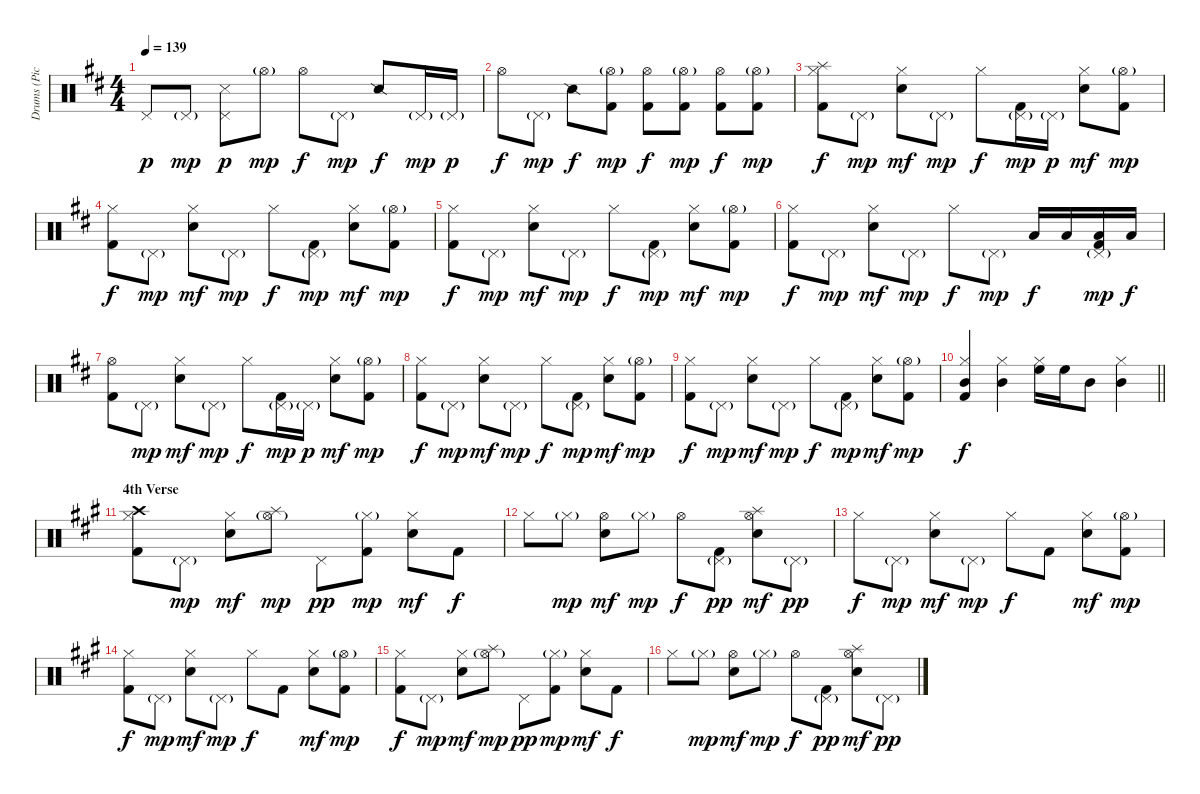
\track ("Drums (Pick)" "Drums (Pic") {instrument percussion}
\staff {score}
\articulation defaults
\ts (4 4)
\tempo 139
\clef neutral
\ks d "Pedal Hi-Hat (hit)".8{dy p} "Pedal Hi-Hat (hit)"{g}.8{dy mp}
("Snare (side stick) 3" "Pedal Hi-Hat (hit)").8{dy p} "Hi-Hat (open)"{g}.8{dy mp} "Hi-Hat (open)".8{dy f} "Pedal Hi-Hat (hit)"{g}.8{dy mp} "Snare (side stick) 2".8{dy f} "Pedal Hi-Hat (hit)"{g}.16{dy mp} "Pedal Hi-Hat (hit)"{g}.16{dy p} |
"Hi-Hat (open)".8{dy f} "Pedal Hi-Hat (hit)"{g}.8{dy mp} "Snare (side stick) 2".8{dy f} ("Kick (hit) 2" "Hi-Hat (open)"{g}).8{dy mp} ("Kick (hit) 2" "Hi-Hat (open)").8{dy f} ("Hi-Hat (open)"{g} "Kick (hit) 2").8{dy mp} ("Hi-Hat (open)" "Kick (hit) 2").8{dy f} ("Hi-Hat (open)"{g} "Kick (hit) 2").8{dy mp} |
("Splash (hit)" "Kick (hit) 2" "Hi-Hat (closed)").8{dy f} "Pedal Hi-Hat (hit)"{g}.8{dy mp} ("Snare (hit) 2" "Hi-Hat (closed)").8{dy mf} "Pedal Hi-Hat (hit)"{g}.8{dy mp} "Hi-Hat (closed)".8{dy f} ("Kick (hit) 2" "Pedal Hi-Hat (hit)"{g}).16{dy mp} "Pedal Hi-Hat (hit)"{g}.16{dy p} ("Hi-Hat (closed)" "Snare (hit) 2").8{dy mf} ("Kick (hit) 2" "Hi-Hat (open)"{g}).8{dy mp} |
("Hi-Hat (closed)" "Kick (hit) 2").8{dy f} "Pedal Hi-Hat (hit)"{g}.8{dy mp} ("Snare (hit) 2" "Hi-Hat (closed)").8{dy mf} "Pedal Hi-Hat (hit)"{g}.8{dy mp} "Hi-Hat (closed)".8{dy f} ("Pedal Hi-Hat (hit)"{g} "Kick (hit) 2").8{dy mp} ("Snare (hit) 2" "Hi-Hat (closed)").8{dy mf} ("Hi-Hat (open)"{g} "Kick (hit) 2").8{dy mp} |
("Kick (hit) 2" "Hi-Hat (closed)").8{dy f} "Pedal Hi-Hat (hit)"{g}.8{dy mp} ("Snare (hit) 2" "Hi-Hat (closed)").8{dy mf} "Pedal Hi-Hat (hit)"{g}.8{dy mp} "Hi-Hat (closed)".8{dy f} ("Kick (hit) 2" "Pedal Hi-Hat (hit)"{g}).8{dy mp} ("Hi-Hat (closed)" "Snare (hit) 2").8{dy mf} ("Hi-Hat (open)"{g} "Kick (hit) 2").8{dy mp} |
("Kick (hit) 2" "Hi-Hat (closed)").8{dy f} "Pedal Hi-Hat (hit)"{g}.8{dy mp} ("Hi-Hat (closed)" "Snare (hit) 2").8{dy mf} "Pedal Hi-Hat (hit)"{g}.8{dy mp} "Hi-Hat (closed)".8{dy f} "Pedal Hi-Hat (hit)"{g}.8{dy mp} "Low Tom (hit)".16{dy f} "Low Tom (hit)".16 ("Pedal Hi-Hat (hit)"{g} "Kick (hit) 2" "Low Tom (hit)").16{dy mp} "Low Tom (hit)".16{dy f} |
("Hi-Hat (open)" "Kick (hit) 2").8 "Pedal Hi-Hat (hit)"{g}.8{dy mp} ("Snare (hit) 2" "Hi-Hat (closed)").8{dy mf} "Pedal Hi-Hat (hit)"{g}.8{dy mp} "Hi-Hat (closed)".8{dy f} ("Kick (hit) 2" "Pedal Hi-Hat (hit)"{g}).16{dy mp} "Pedal Hi-Hat (hit)"{g}.16{dy p} ("Hi-Hat (closed)" "Snare (hit) 2").8{dy mf} ("Kick (hit) 2" "Hi-Hat (open)"{g}).8{dy mp} |
("Hi-Hat (closed)" "Kick (hit) 2").8{dy f} "Pedal Hi-Hat (hit)"{g}.8{dy mp} ("Snare (hit) 2" "Hi-Hat (closed)").8{dy mf} "Pedal Hi-Hat (hit)"{g}.8{dy mp} "Hi-Hat (closed)".8{dy f} ("Kick (hit) 2" "Pedal Hi-Hat (hit)"{g}).8{dy mp} ("Hi-Hat (closed)" "Snare (hit) 2").8{dy mf} ("Hi-Hat (open)"{g} "Kick (hit) 2").8{dy mp} |
("Kick (hit) 2" "Hi-Hat (closed)").8{dy f} "Pedal Hi-Hat (hit)"{g}.8{dy mp} ("Hi-Hat (closed)" "Snare (hit) 2").8{dy mf} "Pedal Hi-Hat (hit)"{g}.8{dy mp} "Hi-Hat (closed)".8{dy f} ("Pedal Hi-Hat (hit)"{g} "Kick (hit) 2").8{dy mp} ("Hi-Hat (closed)" "Snare (hit) 2").8{dy mf} ("Hi-Hat (open)"{g} "Kick (hit) 2").8{dy mp} |
\barLineRight lightlight
("Mid Tom (hit)" "Hi-Hat (closed)" "Kick (hit) 2").4{dy f} ("Mid Tom (hit)" "Hi-Hat (closed)").4 ("Hi-Hat (closed)" "High Floor Tom (hit)").16 "High Floor Tom (hit)".16 "Mid Tom (hit)".8 ("Mid Tom (hit)" "Hi-Hat (closed)").4 |
\section ("" "4th Verse")
\ks a
("Crash high (hit)" "Hi-Hat (closed)" "Kick (hit) 2").8 "Pedal Hi-Hat (hit)"{g}.8{dy mp} ("Snare (hit) 2" "Hi-Hat (closed)").8{dy mf} ("Splash (hit)" "Hi-Hat (open)"{g}).8{dy mp} "Pedal Hi-Hat (hit)".8{dy pp} ("Kick (hit) 2" "Hi-Hat (closed)"{g}).8{dy mp} ("Hi-Hat (closed)" "Snare (hit) 2").8{dy mf} "Kick (hit) 2".8{dy f} |
"Hi-Hat (closed)".8 "Hi-Hat (closed)"{g}.8{dy mp} ("Hi-Hat (open)" "Snare (hit) 2").8{dy mf} "Hi-Hat (closed)"{g}.8{dy mp} "Hi-Hat (open)".8{dy f} ("Kick (hit) 2" "Pedal Hi-Hat (hit)"{g}).8{dy pp} ("Hi-Hat (open)" "Splash (hit)" "Snare (hit) 2").8{dy mf} "Pedal Hi-Hat (hit)"{g}.8{dy pp} |
"Hi-Hat (closed)".8{dy f} "Pedal Hi-Hat (hit)"{g}.8{dy mp} ("Snare (hit) 2" "Hi-Hat (closed)").8{dy mf} "Pedal Hi-Hat (hit)"{g}.8{dy mp} "Hi-Hat (closed)".8{dy f} "Kick (hit) 2".8 ("Hi-Hat (closed)" "Snare (hit) 2").8{dy mf} ("Kick (hit) 2" "Hi-Hat (open)"{g}).8{dy mp} |
("Kick (hit) 2" "Hi-Hat (closed)").8{dy f} "Pedal Hi-Hat (hit)"{g}.8{dy mp} ("Snare (hit) 2" "Hi-Hat (closed)").8{dy mf} "Pedal Hi-Hat (hit)"{g}.8{dy mp} "Hi-Hat (closed)".8{dy f} "Kick (hit) 2".8 ("Snare (hit) 2" "Hi-Hat (closed)").8{dy mf} ("Kick (hit) 2" "Hi-Hat (open)"{g}).8{dy mp} |
("Kick (hit) 2" "Hi-Hat (closed)").8{dy f} "Pedal Hi-Hat (hit)"{g}.8{dy mp} ("Hi-Hat (closed)" "Snare (hit) 2").8{dy mf} ("Splash (hit)" "Hi-Hat (open)"{g}).8{dy mp} "Pedal Hi-Hat (hit)".8{dy pp} ("Kick (hit) 2" "Hi-Hat (closed)"{g}).8{dy mp} ("Hi-Hat (closed)" "Snare (hit) 2").8{dy mf} "Kick (hit) 2".8{dy f} |
"Hi-Hat (closed)".8 "Hi-Hat (closed)"{g}.8{dy mp} ("Hi-Hat (open)" "Snare (hit) 2").8{dy mf} "Hi-Hat (closed)"{g}.8{dy mp} "Hi-Hat (open)".8{dy f} ("Kick (hit) 2" "Pedal Hi-Hat (hit)"{g}).8{dy pp} ("Hi-Hat (open)" "Snare (hit) 2" "Splash (hit)").8{dy mf} "Pedal Hi-Hat (hit)"{g}.8{dy pp}
